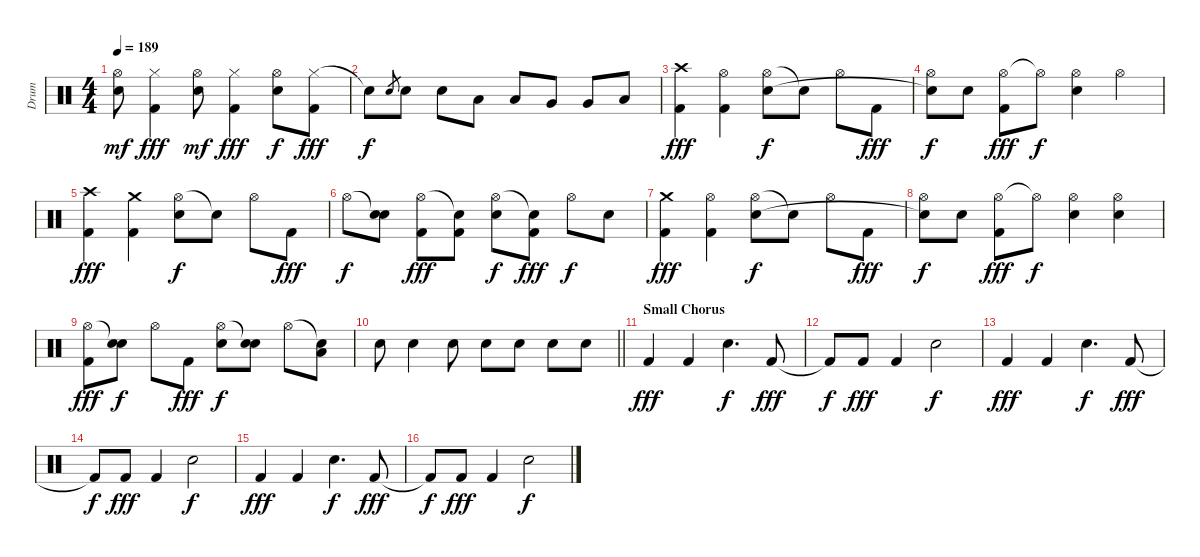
\track ("Drum" "Drum") {instrument percussion}
\staff {score}
\articulation defaults
\ts (4 4)
\tempo 189
\clef neutral
\ks c
("Hi-Hat (open)" "Electric Snare (hit)").8{dy mf} ("Hi-Hat (closed)" "Kick (hit) 2").4{dy fff} ("Hi-Hat (open)" "Electric Snare (hit)").8{dy mf} ("Hi-Hat (closed)" "Kick (hit) 2").4{dy fff} ("Hi-Hat (open)" "Electric Snare (hit)").8{dy f} ("Hi-Hat (closed)" "Kick (hit) 2").8{dy fff} |
"Snare (hit)"{t}.8{dy f} "Electric Snare (hit)".8{gr} "Electric Snare (hit)".8 "Electric Snare (hit)".8 "Low Tom (hit)".8 "Low Tom (hit)".8 "Very Low Tom (hit)".8 "Very Low Tom (hit)".8 "Low Floor Tom (hit)".8 |
("Crash high (hit)" "Kick (hit) 2").4{dy fff} ("Hi-Hat (open)" "Kick (hit) 2").4 ("Hi-Hat (open)" "Electric Snare (hit)").8{dy f} "Snare (hit)"{t}.8 "Hi-Hat (open)".8 "Kick (hit) 2".8{dy fff} |
("Hi-Hat (open)" "Snare (hit)"{t}).8{dy f} "Electric Snare (hit)".8 ("Hi-Hat (open)" "Kick (hit) 2").8{dy fff} "Hi-Hat (open)"{t}.8{dy f} ("Hi-Hat (open)" "Electric Snare (hit)").4 "Hi-Hat (open)".4 |
("Crash high (hit)" "Kick (hit) 2").4{dy fff} ("Crash medium (hit)" "Kick (hit) 2").4 ("Hi-Hat (open)" "Electric Snare (hit)").8{dy f} "Snare (hit)"{t}.8 "Hi-Hat (open)".8 "Kick (hit) 2".8{dy fff} |
"Hi-Hat (open)".8{dy f} ("Snare (hit)"{t} "Electric Snare (hit)").8 ("Hi-Hat (open)" "Kick (hit) 2").8{dy fff} ("Snare (hit)"{t} "Kick (hit) 2").8 ("Hi-Hat (open)" "Electric Snare (hit)").8{dy f} ("Snare (hit)"{t} "Kick (hit) 2").8{dy fff} "Hi-Hat (open)".8{dy f} "Electric Snare (hit)".8 |
("Crash medium (hit)" "Kick (hit) 2").4{dy fff} ("Hi-Hat (open)" "Kick (hit) 2").4 ("Hi-Hat (open)" "Electric Snare (hit)").8{dy f} "Snare (hit)"{t}.8 "Hi-Hat (open)".8 "Kick (hit) 2".8{dy fff} |
("Hi-Hat (open)" "Snare (hit)"{t}).8{dy f} "Electric Snare (hit)".8 ("Hi-Hat (open)" "Kick (hit) 2").8{dy fff} "Hi-Hat (open)"{t}.8{dy f} ("Hi-Hat (open)" "Electric Snare (hit)").4 ("Hi-Hat (open)" "Electric Snare (hit)").4 |
("Hi-Hat (open)" "Kick (hit) 2").8{dy fff} ("Snare (hit)"{t} "Electric Snare (hit)").8{dy f} "Hi-Hat (open)".8 "Kick (hit) 2".8{dy fff} ("Hi-Hat (open)" "Electric Snare (hit)").8{dy f} ("Snare (hit)"{t} "Electric Snare (hit)").8 "Hi-Hat (open)".8 ("Snare (hit)"{t} "Low Tom (hit)").8 |
\barLineRight lightlight "Electric Snare (hit)".8 "Electric Snare (hit)".4 "Electric Snare (hit)".8 "Electric Snare (hit)".8 "Electric Snare (hit)".8 "Electric Snare (hit)".8 "Electric Snare (hit)".8
|
\section ("" "Small Chorus")
"Kick (hit) 2".4{dy fff} "Kick (hit) 2".4 "Electric Snare (hit)".4{d dy f} "Kick (hit) 2".8{dy fff} |
"Kick (hit) 2"{t}.8{dy f} "Kick (hit) 2".8{dy fff} "Kick (hit) 2".4 "Electric Snare (hit)".2{dy f} |
"Kick (hit) 2".4{dy fff} "Kick (hit) 2".4 "Electric Snare (hit)".4{d dy f} "Kick (hit) 2".8{dy fff} |
"Kick (hit) 2"{t}.8{dy f} "Kick (hit) 2".8{dy fff} "Kick (hit) 2".4 "Electric Snare (hit)".2{dy f} |
"Kick (hit) 2".4{dy fff} "Kick (hit) 2".4 "Electric Snare (hit)".4{d dy f} "Kick (hit) 2".8{dy fff} |
"Kick (hit) 2"{t}.8{dy f} "Kick (hit) 2".8{dy fff} "Kick (hit) 2".4 "Electric Snare (hit)".2{dy f}
